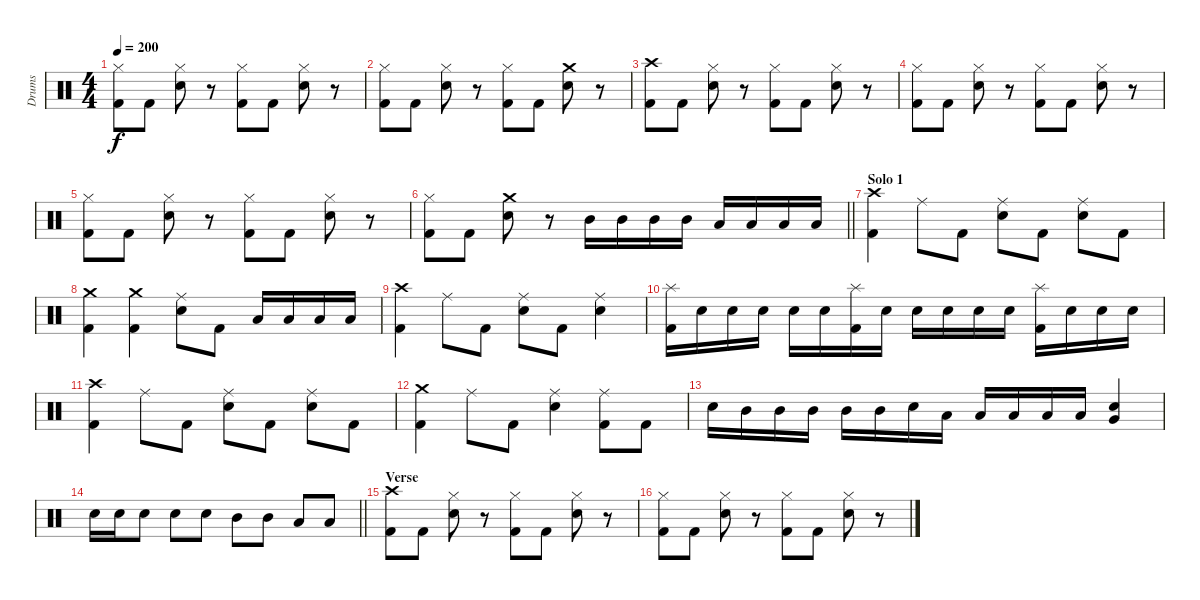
\track ("Drums" "Drums") {instrument percussion}
\staff {score}
\articulation defaults
\ts (4 4)
\tempo 200
\clef neutral
\ks c
("Hi-Hat (closed)" "Kick (hit) 2").8{dy f} "Kick (hit) 2".8 ("Hi-Hat (closed)" "Electric Snare (hit)").8 r.8 ("Hi-Hat (closed)" "Kick (hit) 2").8 "Kick (hit) 2".8 ("Hi-Hat (closed)" "Electric Snare (hit)").8 r.8 |
("Hi-Hat (closed)" "Kick (hit) 2").8 "Kick (hit) 2".8 ("Hi-Hat (closed)" "Electric Snare (hit)").8 r.8 ("Hi-Hat (closed)" "Kick (hit) 2").8 "Kick (hit) 2".8 ("Crash medium (hit)" "Electric Snare (hit)").8 r.8 |
("Crash high (hit)" "Kick (hit) 2").8 "Kick (hit) 2".8 ("Hi-Hat (closed)" "Electric Snare (hit)").8 r.8 ("Hi-Hat (closed)" "Kick (hit) 2").8 "Kick (hit) 2".8 ("Hi-Hat (closed)" "Electric Snare (hit)").8 r.8 |
("Hi-Hat (closed)" "Kick (hit) 2").8 "Kick (hit) 2".8 ("Hi-Hat (closed)" "Electric Snare (hit)").8 r.8 ("Hi-Hat (closed)" "Kick (hit) 2").8 "Kick (hit) 2".8 ("Hi-Hat (closed)" "Electric Snare (hit)").8 r.8 |
("Hi-Hat (closed)" "Kick (hit) 2").8 "Kick (hit) 2".8 ("Hi-Hat (closed)" "Electric Snare (hit)").8 r.8 ("Hi-Hat (closed)" "Kick (hit) 2").8 "Kick (hit) 2".8 ("Hi-Hat (closed)" "Electric Snare (hit)").8 r.8 |
\barLineRight lightlight
("Hi-Hat (closed)" "Kick (hit) 2").8 "Kick (hit) 2".8 ("Crash medium (hit)" "Electric Snare (hit)").8 r.8 "Mid Tom (hit)".16 "Mid Tom (hit)".16 "Mid Tom (hit)".16 "Mid Tom (hit)".16 "Low Tom (hit)".16 "Low Tom (hit)".16 "Low Tom (hit)".16 "Low Tom (hit)".16 |
\section ("" "Solo 1")
("Crash high (hit)" "Kick (hit) 2").4 "Ride (middle)".8 "Kick (hit) 2".8 ("Ride (middle)" "Electric Snare (hit)").8 "Kick (hit) 2".8 ("Ride (middle)" "Electric Snare (hit)").8 "Kick (hit) 2".8 |
("Crash medium (hit)" "Kick (hit) 2").4 ("Crash medium (hit)" "Kick (hit) 2").4 ("Ride (middle)" "Electric Snare (hit)").8 "Kick (hit) 2".8 "Low Tom (hit)".16 "Low Tom (hit)".16 "Low Tom (hit)".16 "Low Tom (hit)".16 |
("Crash high (hit)" "Kick (hit) 2").4 "Ride (middle)".8 "Kick (hit) 2".8 ("Ride (middle)" "Electric Snare (hit)").8 "Kick (hit) 2".8 ("Ride (middle)" "Electric Snare (hit)").4 |
("Splash (hit)" "Kick (hit) 2").16 "Electric Snare (hit)".16 "Electric Snare (hit)".16 "Electric Snare (hit)".16 "Electric Snare (hit)".16 "Electric Snare (hit)".16 ("Splash (hit)" "Kick (hit) 2").16 "Electric Snare (hit)".16 "Electric Snare (hit)".16 "Electric Snare (hit)".16 "Electric Snare (hit)".16 "Electric Snare (hit)".16 ("Splash (hit)" "Kick (hit) 2").16 "Electric Snare (hit)".16 "Electric Snare (hit)".16 "Electric Snare (hit)".16 |
("Crash high (hit)" "Kick (hit) 2").4 "Ride (middle)".8 "Kick (hit) 2".8 ("Ride (middle)" "Electric Snare (hit)").8 "Kick (hit) 2".8 ("Ride (middle)" "Electric Snare (hit)").8 "Kick (hit) 2".8 |
("Crash medium (hit)" "Kick (hit) 2").4 "Ride (middle)".8 "Kick (hit) 2".8 ("Ride (middle)" "Electric Snare (hit)").4 ("Ride (middle)" "Kick (hit) 2").8 "Kick (hit) 2".8 |
"Electric Snare (hit)".16 "Mid Tom (hit)".16 "Mid Tom (hit)".16 "Mid Tom (hit)".16 "Mid Tom (hit)".16 "Mid Tom (hit)".16 "Electric Snare (hit)".16 "Low Tom (hit)".16 "Low Tom (hit)".16 "Low Tom (hit)".16 "Low Tom (hit)".16 "Low Tom (hit)".16 ("Very Low Tom (hit)" "Electric Snare (hit)").4 |
\barLineRight lightlight "Electric Snare (hit)".16 "Electric Snare (hit)".16 "Electric Snare (hit)".8 "Electric Snare (hit)".8 "Electric Snare (hit)".8 "Mid Tom (hit)".8 "Mid Tom (hit)".8 "Low Tom (hit)".8 "Low Tom (hit)".8
|
\section ("" "Verse")
("Crash high (hit)" "Kick (hit) 2").8 "Kick (hit) 2".8 ("Hi-Hat (closed)" "Electric Snare (hit)").8 r.8 ("Hi-Hat (closed)" "Kick (hit) 2").8 "Kick (hit) 2".8 ("Hi-Hat (closed)" "Electric Snare (hit)").8 r.8 |
("Hi-Hat (closed)" "Kick (hit) 2").8 "Kick (hit) 2".8 ("Hi-Hat (closed)" "Electric Snare (hit)").8 r.8 ("Hi-Hat (closed)" "Kick (hit) 2").8 "Kick (hit) 2".8 ("Hi-Hat (closed)" "Electric Snare (hit)").8 r.8
